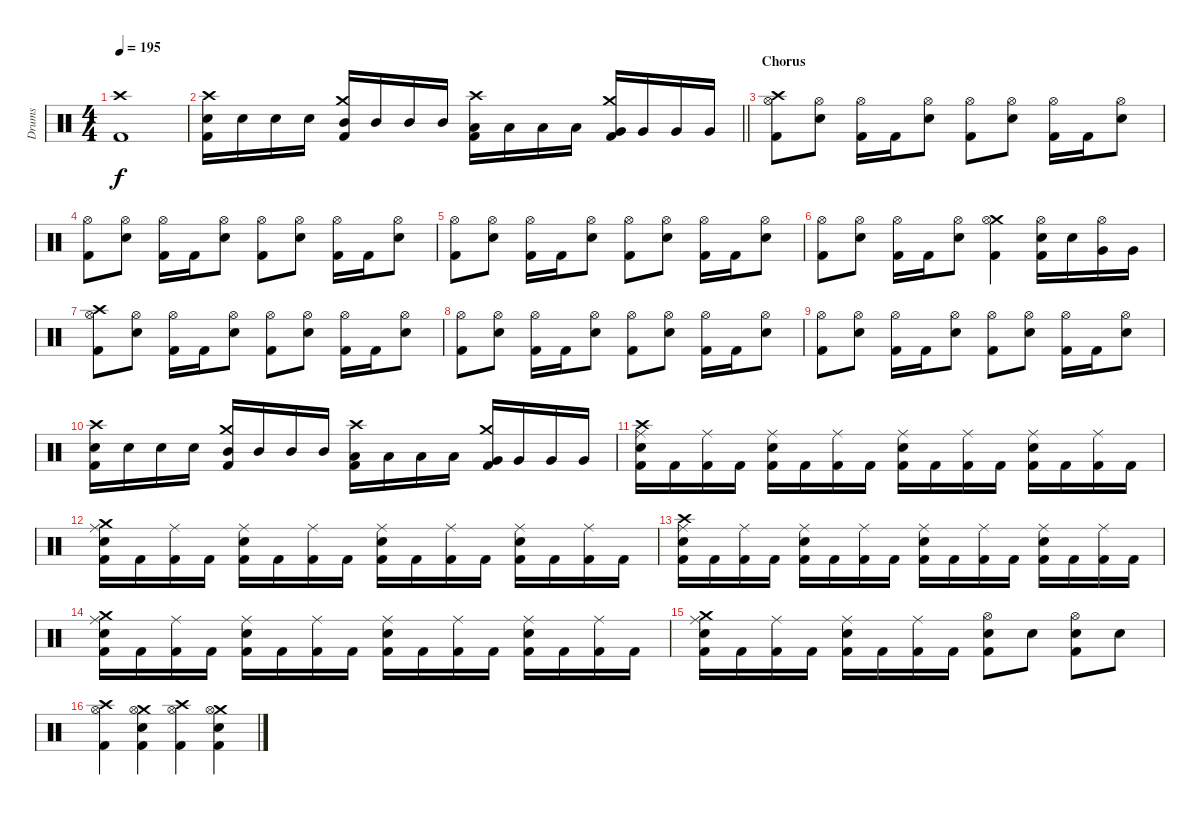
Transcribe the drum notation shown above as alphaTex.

\track ("Drums" "Drums") {instrument percussion}
\staff {score}
\articulation defaults
\ts (4 4)
\tempo 195
\clef neutral
\ks c
("Crash high (hit)" "Kick (hit) 2").1{dy f} |
\barLineRight lightlight
("Crash high (hit)" "Snare (hit) 2" "Kick (hit) 2").16 "Snare (hit) 2".16 "Snare (hit) 2".16 "Snare (hit) 2".16 ("Crash medium (hit)" "Mid Tom (hit)" "Kick (hit) 2").16 "Mid Tom (hit)".16 "Mid Tom (hit)".16 "Mid Tom (hit)".16 ("Crash high (hit)" "Low Tom (hit)" "Kick (hit) 2").16 "Low Tom (hit)".16 "Low Tom (hit)".16 "Low Tom (hit)".16 ("Crash medium (hit)" "Very Low Tom (hit)" "Kick (hit) 2").16 "Very Low Tom (hit)".16 "Very Low Tom (hit)".16 "Very Low Tom (hit)".16 |
\section ("" "Chorus")
("Crash high (hit)" "Hi-Hat (open)" "Kick (hit) 2").8 ("Hi-Hat (open)" "Snare (hit) 2").8 ("Hi-Hat (open)" "Kick (hit) 2").16 "Kick (hit) 2".16 ("Hi-Hat (open)" "Snare (hit) 2").8 ("Hi-Hat (open)" "Kick (hit) 2").8 ("Hi-Hat (open)" "Snare (hit) 2").8 ("Hi-Hat (open)" "Kick (hit) 2").16 "Kick (hit) 2".16 ("Hi-Hat (open)" "Snare (hit) 2").8 |
("Hi-Hat (open)" "Kick (hit) 2").8 ("Hi-Hat (open)" "Snare (hit) 2").8 ("Hi-Hat (open)" "Kick (hit) 2").16 "Kick (hit) 2".16 ("Hi-Hat (open)" "Snare (hit) 2").8 ("Hi-Hat (open)" "Kick (hit) 2").8 ("Hi-Hat (open)" "Snare (hit) 2").8 ("Hi-Hat (open)" "Kick (hit) 2").16 "Kick (hit) 2".16 ("Hi-Hat (open)" "Snare (hit) 2").8 |
("Hi-Hat (open)" "Kick (hit) 2").8 ("Hi-Hat (open)" "Snare (hit) 2").8 ("Hi-Hat (open)" "Kick (hit) 2").16 "Kick (hit) 2".16 ("Hi-Hat (open)" "Snare (hit) 2").8 ("Hi-Hat (open)" "Kick (hit) 2").8 ("Hi-Hat (open)" "Snare (hit) 2").8 ("Hi-Hat (open)" "Kick (hit) 2").16 "Kick (hit) 2".16 ("Hi-Hat (open)" "Snare (hit) 2").8 |
("Hi-Hat (open)" "Kick (hit) 2").8 ("Hi-Hat (open)" "Snare (hit) 2").8 ("Hi-Hat (open)" "Kick (hit) 2").16 "Kick (hit) 2".16 ("Hi-Hat (open)" "Snare (hit) 2").8 ("Crash medium (hit)" "Hi-Hat (open)" "Kick (hit) 2").4 ("Hi-Hat (open)" "Snare (hit) 2" "Kick (hit) 2").16 "Snare (hit) 2".16 ("Hi-Hat (open)" "Very Low Tom (hit)").16 "Very Low Tom (hit)".16 |
("Crash high (hit)" "Hi-Hat (open)" "Kick (hit) 2").8 ("Hi-Hat (open)" "Snare (hit) 2").8 ("Hi-Hat (open)" "Kick (hit) 2").16 "Kick (hit) 2".16 ("Hi-Hat (open)" "Snare (hit) 2").8 ("Hi-Hat (open)" "Kick (hit) 2").8 ("Hi-Hat (open)" "Snare (hit) 2").8 ("Hi-Hat (open)" "Kick (hit) 2").16 "Kick (hit) 2".16 ("Hi-Hat (open)" "Snare (hit) 2").8 |
("Hi-Hat (open)" "Kick (hit) 2").8 ("Hi-Hat (open)" "Snare (hit) 2").8 ("Hi-Hat (open)" "Kick (hit) 2").16 "Kick (hit) 2".16 ("Hi-Hat (open)" "Snare (hit) 2").8 ("Hi-Hat (open)" "Kick (hit) 2").8 ("Hi-Hat (open)" "Snare (hit) 2").8 ("Hi-Hat (open)" "Kick (hit) 2").16 "Kick (hit) 2".16 ("Hi-Hat (open)" "Snare (hit) 2").8 |
("Hi-Hat (open)" "Kick (hit) 2").8 ("Hi-Hat (open)" "Snare (hit) 2").8 ("Hi-Hat (open)" "Kick (hit) 2").16 "Kick (hit) 2".16 ("Hi-Hat (open)" "Snare (hit) 2").8 ("Hi-Hat (open)" "Kick (hit) 2").8 ("Hi-Hat (open)" "Snare (hit) 2").8 ("Hi-Hat (open)" "Kick (hit) 2").16 "Kick (hit) 2".16 ("Hi-Hat (open)" "Snare (hit) 2").8 |
("Crash high (hit)" "Snare (hit) 2" "Kick (hit) 2").16 "Snare (hit) 2".16 "Snare (hit) 2".16 "Snare (hit) 2".16 ("Crash medium (hit)" "Mid Tom (hit)" "Kick (hit) 2").16 "Mid Tom (hit)".16 "Mid Tom (hit)".16 "Mid Tom (hit)".16 ("Crash high (hit)" "Low Tom (hit)" "Kick (hit) 2").16 "Low Tom (hit)".16 "Low Tom (hit)".16 "Low Tom (hit)".16 ("Crash medium (hit)" "Very Low Tom (hit)" "Kick (hit) 2").16 "Very Low Tom (hit)".16 "Very Low Tom (hit)".16 "Very Low Tom (hit)".16 |
("Crash high (hit)" "Ride (middle)" "Snare (hit) 2" "Kick (hit) 2").16 "Kick (hit) 2".16 ("Ride (middle)" "Kick (hit) 2").16 "Kick (hit) 2".16 ("Ride (middle)" "Snare (hit) 2" "Kick (hit) 2").16 "Kick (hit) 2".16 ("Ride (middle)" "Kick (hit) 2").16 "Kick (hit) 2".16 ("Ride (middle)" "Snare (hit) 2" "Kick (hit) 2").16 "Kick (hit) 2".16 ("Ride (middle)" "Kick (hit) 2").16 "Kick (hit) 2".16 ("Ride (middle)" "Snare (hit) 2" "Kick (hit) 2").16 "Kick (hit) 2".16 ("Ride (middle)" "Kick (hit) 2").16 "Kick (hit) 2".16 |
("Crash medium (hit)" "Ride (middle)" "Snare (hit) 2" "Kick (hit) 2").16 "Kick (hit) 2".16 ("Ride (middle)" "Kick (hit) 2").16 "Kick (hit) 2".16 ("Ride (middle)" "Snare (hit) 2" "Kick (hit) 2").16 "Kick (hit) 2".16 ("Ride (middle)" "Kick (hit) 2").16 "Kick (hit) 2".16 ("Ride (middle)" "Snare (hit) 2" "Kick (hit) 2").16 "Kick (hit) 2".16 ("Ride (middle)" "Kick (hit) 2").16 "Kick (hit) 2".16 ("Ride (middle)" "Snare (hit) 2" "Kick (hit) 2").16 "Kick (hit) 2".16 ("Ride (middle)" "Kick (hit) 2").16 "Kick (hit) 2".16 |
("Crash high (hit)" "Ride (middle)" "Snare (hit) 2" "Kick (hit) 2").16 "Kick (hit) 2".16 ("Ride (middle)" "Kick (hit) 2").16 "Kick (hit) 2".16 ("Ride (middle)" "Snare (hit) 2" "Kick (hit) 2").16 "Kick (hit) 2".16 ("Ride (middle)" "Kick (hit) 2").16 "Kick (hit) 2".16 ("Ride (middle)" "Snare (hit) 2" "Kick (hit) 2").16 "Kick (hit) 2".16 ("Ride (middle)" "Kick (hit) 2").16 "Kick (hit) 2".16 ("Ride (middle)" "Snare (hit) 2" "Kick (hit) 2").16 "Kick (hit) 2".16 ("Ride (middle)" "Kick (hit) 2").16 "Kick (hit) 2".16 |
("Crash medium (hit)" "Ride (middle)" "Snare (hit) 2" "Kick (hit) 2").16 "Kick (hit) 2".16 ("Ride (middle)" "Kick (hit) 2").16 "Kick (hit) 2".16 ("Ride (middle)" "Snare (hit) 2" "Kick (hit) 2").16 "Kick (hit) 2".16 ("Ride (middle)" "Kick (hit) 2").16 "Kick (hit) 2".16 ("Ride (middle)" "Snare (hit) 2" "Kick (hit) 2").16 "Kick (hit) 2".16 ("Ride (middle)" "Kick (hit) 2").16 "Kick (hit) 2".16 ("Ride (middle)" "Snare (hit) 2" "Kick (hit) 2").16 "Kick (hit) 2".16 ("Ride (middle)" "Kick (hit) 2").16 "Kick (hit) 2".16 |
("Crash medium (hit)" "Ride (middle)" "Snare (hit) 2" "Kick (hit) 2").16 "Kick (hit) 2".16 ("Ride (middle)" "Kick (hit) 2").16 "Kick (hit) 2".16 ("Ride (middle)" "Snare (hit) 2" "Kick (hit) 2").16 "Kick (hit) 2".16 ("Ride (middle)" "Kick (hit) 2").16 "Kick (hit) 2".16 ("Hi-Hat (open)" "Snare (hit) 2" "Kick (hit) 2").8 "Snare (hit) 2".8 ("Hi-Hat (open)" "Snare (hit) 2" "Kick (hit) 2").8 "Snare (hit) 2".8 |
("Crash high (hit)" "Hi-Hat (open)" "Kick (hit) 2").4 ("Crash medium (hit)" "Hi-Hat (open)" "Snare (hit) 2" "Kick (hit) 2").4 ("Crash high (hit)" "Hi-Hat (open)" "Kick (hit) 2").4 ("Crash medium (hit)" "Hi-Hat (open)" "Snare (hit) 2" "Kick (hit) 2").4
